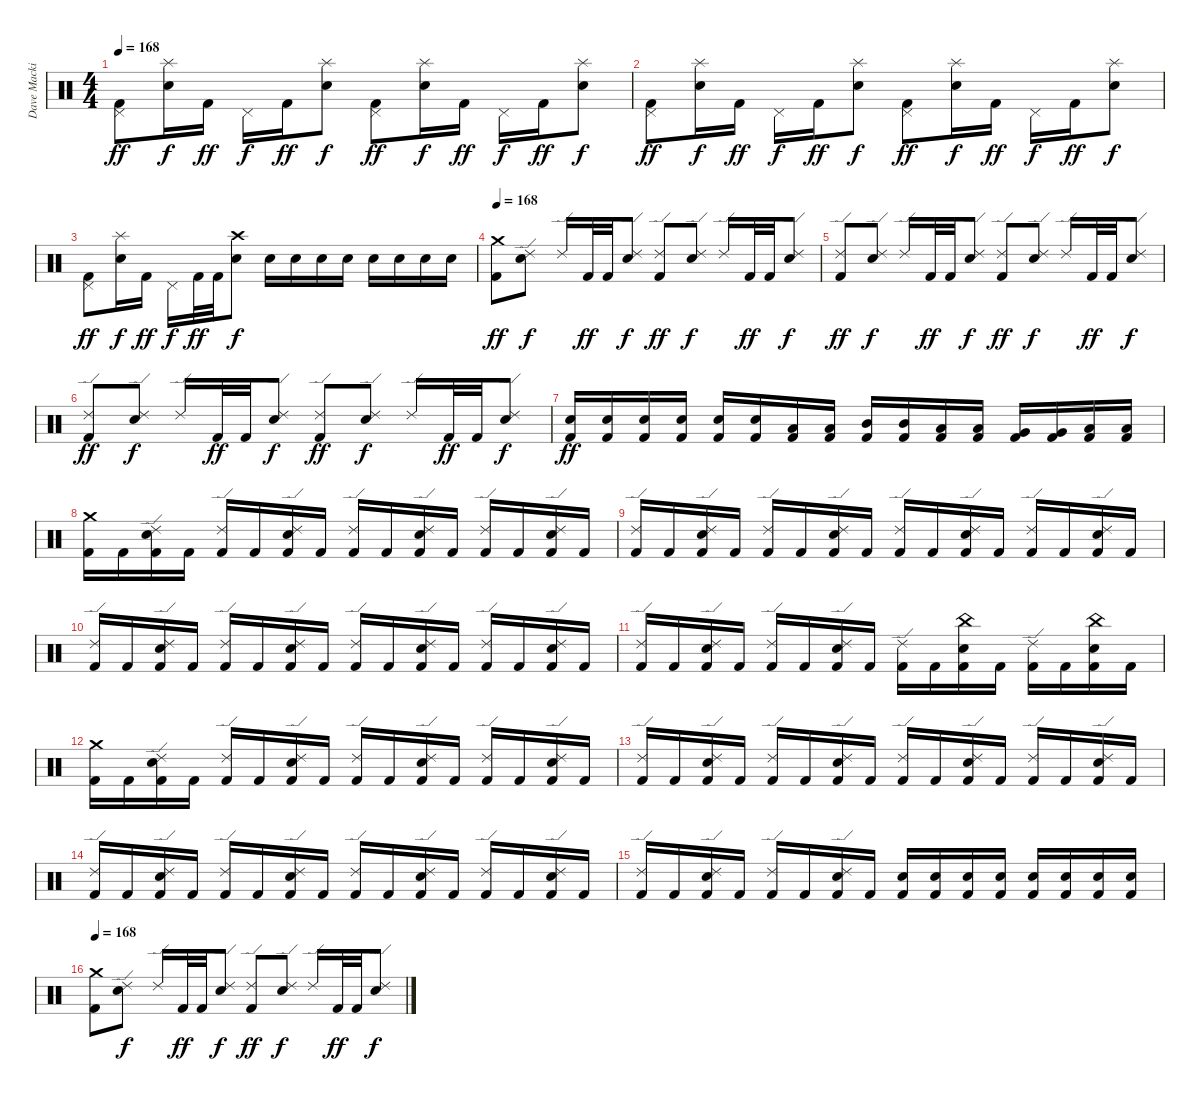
\track ("Dave Mackintosh" "Dave Macki") {instrument percussion}
\staff {score}
\articulation defaults
\ts (4 4)
\tempo 168
\clef neutral
\ks c
("Pedal Hi-Hat (hit)" "Kick (hit) 2").8{dy ff} ("Splash (hit)" "Electric Snare (hit)").16{dy f} "Kick (hit) 2".16{dy ff} "Pedal Hi-Hat (hit)".16{dy f} "Kick (hit) 2".16{dy ff} ("Splash (hit)" "Electric Snare (hit)").8{dy f} ("Pedal Hi-Hat (hit)" "Kick (hit) 2").8{dy ff} ("Splash (hit)" "Electric Snare (hit)").16{dy f} "Kick (hit) 2".16{dy ff} "Pedal Hi-Hat (hit)".16{dy f} "Kick (hit) 2".16{dy ff} ("Splash (hit)" "Electric Snare (hit)").8{dy f} |
("Pedal Hi-Hat (hit)" "Kick (hit) 2").8{dy ff} ("Splash (hit)" "Electric Snare (hit)").16{dy f} "Kick (hit) 2".16{dy ff} "Pedal Hi-Hat (hit)".16{dy f} "Kick (hit) 2".16{dy ff} ("Splash (hit)" "Electric Snare (hit)").8{dy f} ("Pedal Hi-Hat (hit)" "Kick (hit) 2").8{dy ff} ("Splash (hit)" "Electric Snare (hit)").16{dy f} "Kick (hit) 2".16{dy ff} "Pedal Hi-Hat (hit)".16{dy f} "Kick (hit) 2".16{dy ff} ("Splash (hit)" "Electric Snare (hit)").8{dy f} |
("Pedal Hi-Hat (hit)" "Kick (hit) 2").8{dy ff} ("Splash (hit)" "Electric Snare (hit)").16{dy f} "Kick (hit) 2".16{dy ff} "Pedal Hi-Hat (hit)".16{dy f} "Kick (hit) 2".32{dy ff} "Kick (hit) 2".32 ("Crash high (hit)" "Electric Snare (hit)").8{dy f} "Electric Snare (hit)".16 "Electric Snare (hit)".16 "Electric Snare (hit)".16 "Electric Snare (hit)".16 "Electric Snare (hit)".16 "Electric Snare (hit)".16 "Electric Snare (hit)".16 "Electric Snare (hit)".16 |
\tempo 168
("Crash medium (hit)" "Kick (hit) 2").8{dy ff} ("Ride (edge) 2" "Electric Snare (hit)").8{dy f} "Ride (edge) 2".16 "Kick (hit) 2".32{dy ff} "Kick (hit) 2".32 ("Ride (edge) 2" "Electric Snare (hit)").8{dy f} ("Ride (edge) 2" "Kick (hit) 2").8{dy ff} ("Ride (edge) 2" "Electric Snare (hit)").8{dy f} "Ride (edge) 2".16 "Kick (hit) 2".32{dy ff} "Kick (hit) 2".32 ("Ride (edge) 2" "Electric Snare (hit)").8{dy f} |
("Ride (edge) 2" "Kick (hit) 2").8{dy ff} ("Ride (edge) 2" "Electric Snare (hit)").8{dy f} "Ride (edge) 2".16 "Kick (hit) 2".32{dy ff} "Kick (hit) 2".32 ("Ride (edge) 2" "Electric Snare (hit)").8{dy f} ("Ride (edge) 2" "Kick (hit) 2").8{dy ff} ("Ride (edge) 2" "Electric Snare (hit)").8{dy f} "Ride (edge) 2".16 "Kick (hit) 2".32{dy ff} "Kick (hit) 2".32 ("Ride (edge) 2" "Electric Snare (hit)").8{dy f} |
("Ride (edge) 2" "Kick (hit) 2").8{dy ff} ("Ride (edge) 2" "Electric Snare (hit)").8{dy f} "Ride (edge) 2".16 "Kick (hit) 2".32{dy ff} "Kick (hit) 2".32 ("Ride (edge) 2" "Electric Snare (hit)").8{dy f} ("Ride (edge) 2" "Kick (hit) 2").8{dy ff} ("Ride (edge) 2" "Electric Snare (hit)").8{dy f} "Ride (edge) 2".16 "Kick (hit) 2".32{dy ff} "Kick (hit) 2".32 ("Ride (edge) 2" "Electric Snare (hit)").8{dy f} |
("Electric Snare (hit)" "Kick (hit) 2").16{dy ff} ("Electric Snare (hit)" "Kick (hit) 2").16 ("Electric Snare (hit)" "Kick (hit) 2").16 ("Electric Snare (hit)" "Kick (hit) 2").16 ("Electric Snare (hit)" "Kick (hit) 2").16 ("Electric Snare (hit)" "Kick (hit) 2").16 ("Low Tom (hit)" "Kick (hit) 2").16 ("Low Tom (hit)" "Kick (hit) 2").16 ("Mid Tom (hit)" "Kick (hit) 2").16 ("Mid Tom (hit)" "Kick (hit) 2").16 ("Low Tom (hit)" "Kick (hit) 2").16 ("Low Tom (hit)" "Kick (hit) 2").16 ("Very Low Tom (hit)" "Kick (hit) 2").16 ("Very Low Tom (hit)" "Kick (hit) 2").16 ("Low Floor Tom (hit)" "Kick (hit) 2").16 ("Low Floor Tom (hit)" "Kick (hit) 2").16 |
("Crash medium (hit)" "Kick (hit) 2").16 "Kick (hit) 2".16 ("Ride (edge) 2" "Electric Snare (hit)" "Kick (hit) 2").16 "Kick (hit) 2".16 ("Ride (edge) 2" "Kick (hit) 2").16 "Kick (hit) 2".16 ("Ride (edge) 2" "Electric Snare (hit)" "Kick (hit) 2").16 "Kick (hit) 2".16 ("Ride (edge) 2" "Kick (hit) 2").16 "Kick (hit) 2".16 ("Ride (edge) 2" "Electric Snare (hit)" "Kick (hit) 2").16 "Kick (hit) 2".16 ("Ride (edge) 2" "Kick (hit) 2").16 "Kick (hit) 2".16 ("Ride (edge) 2" "Electric Snare (hit)" "Kick (hit) 2").16 "Kick (hit) 2".16 |
("Ride (edge) 2" "Kick (hit) 2").16 "Kick (hit) 2".16 ("Ride (edge) 2" "Electric Snare (hit)" "Kick (hit) 2").16 "Kick (hit) 2".16 ("Ride (edge) 2" "Kick (hit) 2").16 "Kick (hit) 2".16 ("Ride (edge) 2" "Electric Snare (hit)" "Kick (hit) 2").16 "Kick (hit) 2".16 ("Ride (edge) 2" "Kick (hit) 2").16 "Kick (hit) 2".16 ("Ride (edge) 2" "Electric Snare (hit)" "Kick (hit) 2").16 "Kick (hit) 2".16 ("Ride (edge) 2" "Kick (hit) 2").16 "Kick (hit) 2".16 ("Ride (edge) 2" "Electric Snare (hit)" "Kick (hit) 2").16 "Kick (hit) 2".16 |
("Ride (edge) 2" "Kick (hit) 2").16 "Kick (hit) 2".16 ("Ride (edge) 2" "Electric Snare (hit)" "Kick (hit) 2").16 "Kick (hit) 2".16 ("Ride (edge) 2" "Kick (hit) 2").16 "Kick (hit) 2".16 ("Ride (edge) 2" "Electric Snare (hit)" "Kick (hit) 2").16 "Kick (hit) 2".16 ("Ride (edge) 2" "Kick (hit) 2").16 "Kick (hit) 2".16 ("Ride (edge) 2" "Electric Snare (hit)" "Kick (hit) 2").16 "Kick (hit) 2".16 ("Ride (edge) 2" "Kick (hit) 2").16 "Kick (hit) 2".16 ("Ride (edge) 2" "Electric Snare (hit)" "Kick (hit) 2").16 "Kick (hit) 2".16 |
("Ride (edge) 2" "Kick (hit) 2").16 "Kick (hit) 2".16 ("Ride (edge) 2" "Electric Snare (hit)" "Kick (hit) 2").16 "Kick (hit) 2".16 ("Ride (edge) 2" "Kick (hit) 2").16 "Kick (hit) 2".16 ("Ride (edge) 2" "Electric Snare (hit)" "Kick (hit) 2").16 "Kick (hit) 2".16 ("Ride (edge) 2" "Kick (hit) 2").16 "Kick (hit) 2".16 ("China (hit)" "Electric Snare (hit)" "Kick (hit) 2").16 "Kick (hit) 2".16 ("Ride (edge) 2" "Kick (hit) 2").16 "Kick (hit) 2".16 ("China (hit)" "Electric Snare (hit)" "Kick (hit) 2").16 "Kick (hit) 2".16 |
("Crash medium (hit)" "Kick (hit) 2").16 "Kick (hit) 2".16 ("Ride (edge) 2" "Electric Snare (hit)" "Kick (hit) 2").16 "Kick (hit) 2".16 ("Ride (edge) 2" "Kick (hit) 2").16 "Kick (hit) 2".16 ("Ride (edge) 2" "Electric Snare (hit)" "Kick (hit) 2").16 "Kick (hit) 2".16 ("Ride (edge) 2" "Kick (hit) 2").16 "Kick (hit) 2".16 ("Ride (edge) 2" "Electric Snare (hit)" "Kick (hit) 2").16 "Kick (hit) 2".16 ("Ride (edge) 2" "Kick (hit) 2").16 "Kick (hit) 2".16 ("Ride (edge) 2" "Electric Snare (hit)" "Kick (hit) 2").16 "Kick (hit) 2".16 |
("Ride (edge) 2" "Kick (hit) 2").16 "Kick (hit) 2".16 ("Ride (edge) 2" "Electric Snare (hit)" "Kick (hit) 2").16 "Kick (hit) 2".16 ("Ride (edge) 2" "Kick (hit) 2").16 "Kick (hit) 2".16 ("Ride (edge) 2" "Electric Snare (hit)" "Kick (hit) 2").16 "Kick (hit) 2".16 ("Ride (edge) 2" "Kick (hit) 2").16 "Kick (hit) 2".16 ("Ride (edge) 2" "Electric Snare (hit)" "Kick (hit) 2").16 "Kick (hit) 2".16 ("Ride (edge) 2" "Kick (hit) 2").16 "Kick (hit) 2".16 ("Ride (edge) 2" "Electric Snare (hit)" "Kick (hit) 2").16 "Kick (hit) 2".16 |
("Ride (edge) 2" "Kick (hit) 2").16 "Kick (hit) 2".16 ("Ride (edge) 2" "Electric Snare (hit)" "Kick (hit) 2").16 "Kick (hit) 2".16 ("Ride (edge) 2" "Kick (hit) 2").16 "Kick (hit) 2".16 ("Ride (edge) 2" "Electric Snare (hit)" "Kick (hit) 2").16 "Kick (hit) 2".16 ("Ride (edge) 2" "Kick (hit) 2").16 "Kick (hit) 2".16 ("Ride (edge) 2" "Electric Snare (hit)" "Kick (hit) 2").16 "Kick (hit) 2".16 ("Ride (edge) 2" "Kick (hit) 2").16 "Kick (hit) 2".16 ("Ride (edge) 2" "Electric Snare (hit)" "Kick (hit) 2").16 "Kick (hit) 2".16 |
("Ride (edge) 2" "Kick (hit) 2").16 "Kick (hit) 2".16 ("Ride (edge) 2" "Electric Snare (hit)" "Kick (hit) 2").16 "Kick (hit) 2".16 ("Ride (edge) 2" "Kick (hit) 2").16 "Kick (hit) 2".16 ("Ride (edge) 2" "Electric Snare (hit)" "Kick (hit) 2").16 "Kick (hit) 2".16 ("Electric Snare (hit)" "Kick (hit) 2").16 ("Electric Snare (hit)" "Kick (hit) 2").16 ("Electric Snare (hit)" "Kick (hit) 2").16 ("Electric Snare (hit)" "Kick (hit) 2").16 ("Electric Snare (hit)" "Kick (hit) 2").16 ("Electric Snare (hit)" "Kick (hit) 2").16 ("Electric Snare (hit)" "Kick (hit) 2").16 ("Electric Snare (hit)" "Kick (hit) 2").16 |
\tempo 168
("Crash medium (hit)" "Kick (hit) 2").8 ("Ride (edge) 2" "Electric Snare (hit)").8{dy f} "Ride (edge) 2".16 "Kick (hit) 2".32{dy ff} "Kick (hit) 2".32 ("Ride (edge) 2" "Electric Snare (hit)").8{dy f} ("Ride (edge) 2" "Kick (hit) 2").8{dy ff} ("Ride (edge) 2" "Electric Snare (hit)").8{dy f} "Ride (edge) 2".16 "Kick (hit) 2".32{dy ff} "Kick (hit) 2".32 ("Ride (edge) 2" "Electric Snare (hit)").8{dy f}
